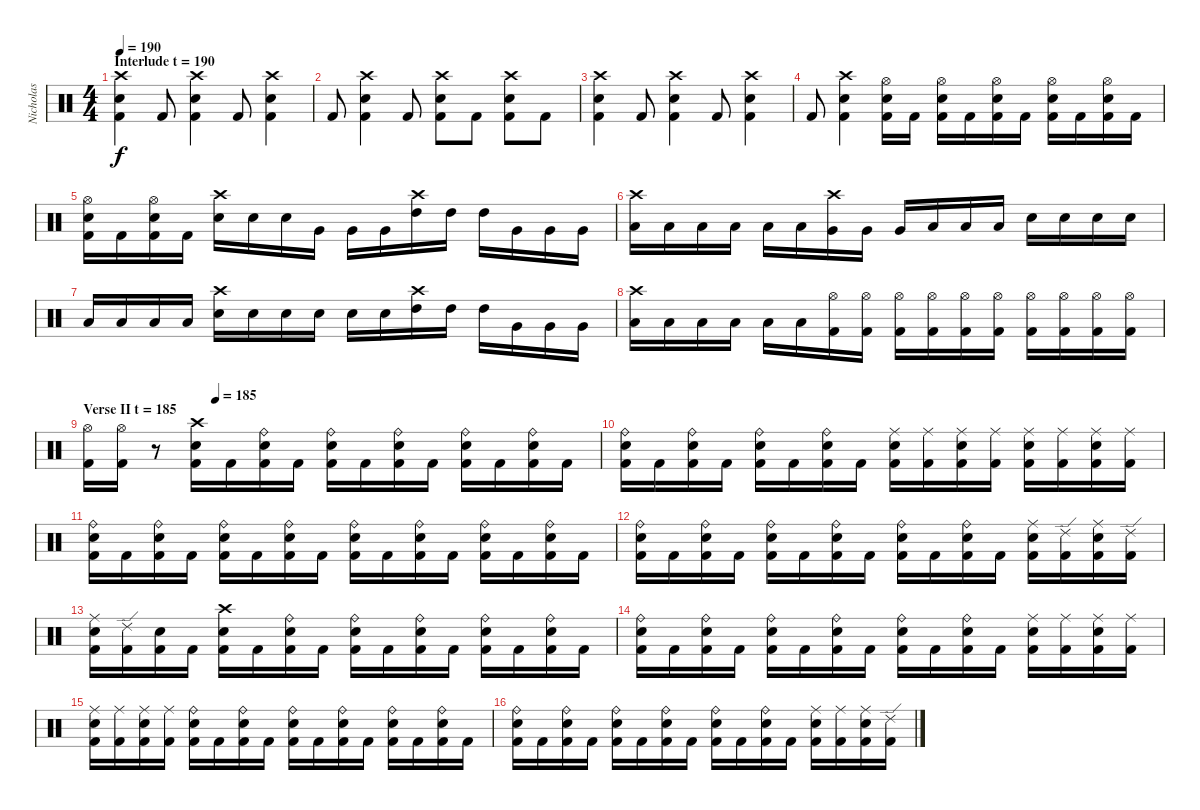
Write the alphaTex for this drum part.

\track ("Nicholas" "Nicholas") {instrument percussion}
\staff {score}
\articulation defaults
\ts (4 4)
\section ("" "Interlude t = 190")
\tempo 190
\clef neutral
\ks c
("Crash high (hit)" "Electric Snare (hit)" "Kick (hit) 2").4{dy f} "Kick (hit) 2".8 ("Crash high (hit)" "Electric Snare (hit)" "Kick (hit) 2").4 "Kick (hit) 2".8 ("Crash high (hit)" "Electric Snare (hit)" "Kick (hit) 2").4 |
"Kick (hit) 2".8 ("Crash high (hit)" "Electric Snare (hit)" "Kick (hit) 2").4 "Kick (hit) 2".8 ("Crash high (hit)" "Electric Snare (hit)" "Kick (hit) 2").8 "Kick (hit) 2".8 ("Crash high (hit)" "Electric Snare (hit)" "Kick (hit) 2").8 "Kick (hit) 2".8 |
("Crash high (hit)" "Electric Snare (hit)" "Kick (hit) 2").4 "Kick (hit) 2".8 ("Crash high (hit)" "Electric Snare (hit)" "Kick (hit) 2").4 "Kick (hit) 2".8 ("Crash high (hit)" "Electric Snare (hit)" "Kick (hit) 2").4 |
"Kick (hit) 2".8 ("Crash high (hit)" "Electric Snare (hit)" "Kick (hit) 2").4 ("Hi-Hat (open)" "Electric Snare (hit)" "Kick (hit) 2").16 "Kick (hit) 2".16 ("Hi-Hat (open)" "Electric Snare (hit)" "Kick (hit) 2").16 "Kick (hit) 2".16 ("Hi-Hat (open)" "Electric Snare (hit)" "Kick (hit) 2").16 "Kick (hit) 2".16 ("Hi-Hat (open)" "Electric Snare (hit)" "Kick (hit) 2").16 "Kick (hit) 2".16 ("Hi-Hat (open)" "Electric Snare (hit)" "Kick (hit) 2").16 "Kick (hit) 2".16 |
("Hi-Hat (open)" "Electric Snare (hit)" "Kick (hit) 2").16 "Kick (hit) 2".16 ("Hi-Hat (open)" "Electric Snare (hit)" "Kick (hit) 2").16 "Kick (hit) 2".16 ("Crash high (hit)" "Electric Snare (hit)").16 "Electric Snare (hit)".16 "Electric Snare (hit)".16 "Very Low Tom (hit)".16 "Very Low Tom (hit)".16 "Very Low Tom (hit)".16 ("Crash high (hit)" "High Tom (hit)").16 "High Tom (hit)".16 "High Tom (hit)".16 "Very Low Tom (hit)".16 "Very Low Tom (hit)".16 "Very Low Tom (hit)".16 |
("Crash high (hit)" "Low Tom (hit)").16 "Low Tom (hit)".16 "Low Tom (hit)".16 "Low Floor Tom (hit)".16 "Low Floor Tom (hit)".16 "Low Floor Tom (hit)".16 ("Crash high (hit)" "Very Low Tom (hit)").16 "Very Low Tom (hit)".16 "Very Low Tom (hit)".16 "Low Floor Tom (hit)".16 "Low Floor Tom (hit)".16 "Low Floor Tom (hit)".16 "Electric Snare (hit)".16 "Electric Snare (hit)".16 "Electric Snare (hit)".16 "Electric Snare (hit)".16 |
"Low Floor Tom (hit)".16 "Low Floor Tom (hit)".16 "Low Floor Tom (hit)".16 "Low Floor Tom (hit)".16 ("Crash high (hit)" "Electric Snare (hit)").16 "Electric Snare (hit)".16 "Electric Snare (hit)".16 "Electric Snare (hit)".16 "Electric Snare (hit)".16 "Electric Snare (hit)".16 ("Crash high (hit)" "High Tom (hit)").16 "High Tom (hit)".16 "High Tom (hit)".16 "Very Low Tom (hit)".16 "Very Low Tom (hit)".16 "Very Low Tom (hit)".16 |
("Crash high (hit)" "Low Tom (hit)").16 "Low Tom (hit)".16 "Low Tom (hit)".16 "Low Floor Tom (hit)".16 "Low Floor Tom (hit)".16 "Low Floor Tom (hit)".16 ("Hi-Hat (open)" "Kick (hit) 2").16 ("Hi-Hat (open)" "Kick (hit) 2").16 ("Hi-Hat (open)" "Kick (hit) 2").16 ("Hi-Hat (open)" "Kick (hit) 2").16 ("Hi-Hat (open)" "Kick (hit) 2").16 ("Hi-Hat (open)" "Kick (hit) 2").16 ("Hi-Hat (open)" "Kick (hit) 2").16 ("Hi-Hat (open)" "Kick (hit) 2").16 ("Hi-Hat (open)" "Kick (hit) 2").16 ("Hi-Hat (open)" "Kick (hit) 2").16 |
\section ("" "Verse II t = 185")
\tempo (185 0.25)
("Hi-Hat (open)" "Kick (hit) 2").16 ("Hi-Hat (open)" "Kick (hit) 2").16 r.8 ("Crash high (hit)" "Electric Snare (hit)" "Kick (hit) 2").16 "Kick (hit) 2".16 ("Ride (bell)" "Electric Snare (hit)" "Kick (hit) 2").16 "Kick (hit) 2".16 ("Ride (bell)" "Electric Snare (hit)" "Kick (hit) 2").16 "Kick (hit) 2".16 ("Ride (bell)" "Electric Snare (hit)" "Kick (hit) 2").16 "Kick (hit) 2".16 ("Ride (bell)" "Electric Snare (hit)" "Kick (hit) 2").16 "Kick (hit) 2".16 ("Ride (bell)" "Electric Snare (hit)" "Kick (hit) 2").16 "Kick (hit) 2".16 |
("Ride (bell)" "Electric Snare (hit)" "Kick (hit) 2").16 "Kick (hit) 2".16 ("Ride (bell)" "Electric Snare (hit)" "Kick (hit) 2").16 "Kick (hit) 2".16 ("Ride (bell)" "Electric Snare (hit)" "Kick (hit) 2").16 "Kick (hit) 2".16 ("Ride (bell)" "Electric Snare (hit)" "Kick (hit) 2").16 "Kick (hit) 2".16 ("Ride (middle)" "Electric Snare (hit)" "Kick (hit) 2").16 ("Ride (middle)" "Kick (hit) 2").16 ("Ride (middle)" "Electric Snare (hit)" "Kick (hit) 2").16 ("Ride (middle)" "Kick (hit) 2").16 ("Ride (middle)" "Electric Snare (hit)" "Kick (hit) 2").16 ("Ride (middle)" "Kick (hit) 2").16 ("Ride (middle)" "Electric Snare (hit)" "Kick (hit) 2").16 ("Ride (middle)" "Kick (hit) 2").16 |
("Ride (bell)" "Electric Snare (hit)" "Kick (hit) 2").16 "Kick (hit) 2".16 ("Ride (bell)" "Electric Snare (hit)" "Kick (hit) 2").16 "Kick (hit) 2".16 ("Ride (bell)" "Electric Snare (hit)" "Kick (hit) 2").16 "Kick (hit) 2".16 ("Ride (bell)" "Electric Snare (hit)" "Kick (hit) 2").16 "Kick (hit) 2".16 ("Ride (bell)" "Electric Snare (hit)" "Kick (hit) 2").16 "Kick (hit) 2".16 ("Ride (bell)" "Electric Snare (hit)" "Kick (hit) 2").16 "Kick (hit) 2".16 ("Ride (bell)" "Electric Snare (hit)" "Kick (hit) 2").16 "Kick (hit) 2".16 ("Ride (bell)" "Electric Snare (hit)" "Kick (hit) 2").16 "Kick (hit) 2".16 |
("Ride (bell)" "Electric Snare (hit)" "Kick (hit) 2").16 "Kick (hit) 2".16 ("Ride (bell)" "Electric Snare (hit)" "Kick (hit) 2").16 "Kick (hit) 2".16 ("Ride (bell)" "Electric Snare (hit)" "Kick (hit) 2").16 "Kick (hit) 2".16 ("Ride (bell)" "Electric Snare (hit)" "Kick (hit) 2").16 "Kick (hit) 2".16 ("Ride (bell)" "Electric Snare (hit)" "Kick (hit) 2").16 "Kick (hit) 2".16 ("Ride (bell)" "Electric Snare (hit)" "Kick (hit) 2").16 "Kick (hit) 2".16 ("Ride (middle)" "Electric Snare (hit)" "Kick (hit) 2").16 ("Ride (edge) 2" "Kick (hit) 2").16 ("Ride (middle)" "Electric Snare (hit)" "Kick (hit) 2").16 ("Ride (edge) 2" "Kick (hit) 2").16 |
("Ride (middle)" "Electric Snare (hit)" "Kick (hit) 2").16 ("Ride (edge) 2" "Kick (hit) 2").16 ("Electric Snare (hit)" "Kick (hit) 2").16 "Kick (hit) 2".16 ("Crash high (hit)" "Electric Snare (hit)" "Kick (hit) 2").16 "Kick (hit) 2".16 ("Ride (bell)" "Electric Snare (hit)" "Kick (hit) 2").16 "Kick (hit) 2".16 ("Ride (bell)" "Electric Snare (hit)" "Kick (hit) 2").16 "Kick (hit) 2".16 ("Ride (bell)" "Electric Snare (hit)" "Kick (hit) 2").16 "Kick (hit) 2".16 ("Ride (bell)" "Electric Snare (hit)" "Kick (hit) 2").16 "Kick (hit) 2".16 ("Ride (bell)" "Electric Snare (hit)" "Kick (hit) 2").16 "Kick (hit) 2".16 |
("Ride (bell)" "Electric Snare (hit)" "Kick (hit) 2").16 "Kick (hit) 2".16 ("Ride (bell)" "Electric Snare (hit)" "Kick (hit) 2").16 "Kick (hit) 2".16 ("Ride (bell)" "Electric Snare (hit)" "Kick (hit) 2").16 "Kick (hit) 2".16 ("Ride (bell)" "Electric Snare (hit)" "Kick (hit) 2").16 "Kick (hit) 2".16 ("Ride (bell)" "Electric Snare (hit)" "Kick (hit) 2").16 "Kick (hit) 2".16 ("Ride (bell)" "Electric Snare (hit)" "Kick (hit) 2").16 "Kick (hit) 2".16 ("Ride (middle)" "Electric Snare (hit)" "Kick (hit) 2").16 ("Ride (middle)" "Kick (hit) 2").16 ("Ride (middle)" "Electric Snare (hit)" "Kick (hit) 2").16 ("Ride (middle)" "Kick (hit) 2").16 |
("Ride (middle)" "Electric Snare (hit)" "Kick (hit) 2").16 ("Ride (middle)" "Kick (hit) 2").16 ("Ride (middle)" "Electric Snare (hit)" "Kick (hit) 2").16 ("Ride (middle)" "Kick (hit) 2").16 ("Ride (bell)" "Electric Snare (hit)" "Kick (hit) 2").16 "Kick (hit) 2".16 ("Ride (bell)" "Electric Snare (hit)" "Kick (hit) 2").16 "Kick (hit) 2".16 ("Ride (bell)" "Electric Snare (hit)" "Kick (hit) 2").16 "Kick (hit) 2".16 ("Ride (bell)" "Electric Snare (hit)" "Kick (hit) 2").16 "Kick (hit) 2".16 ("Ride (bell)" "Electric Snare (hit)" "Kick (hit) 2").16 "Kick (hit) 2".16 ("Ride (bell)" "Electric Snare (hit)" "Kick (hit) 2").16 "Kick (hit) 2".16 |
("Ride (bell)" "Electric Snare (hit)" "Kick (hit) 2").16 "Kick (hit) 2".16 ("Ride (bell)" "Electric Snare (hit)" "Kick (hit) 2").16 "Kick (hit) 2".16 ("Ride (bell)" "Electric Snare (hit)" "Kick (hit) 2").16 "Kick (hit) 2".16 ("Ride (bell)" "Electric Snare (hit)" "Kick (hit) 2").16 "Kick (hit) 2".16 ("Ride (bell)" "Electric Snare (hit)" "Kick (hit) 2").16 "Kick (hit) 2".16 ("Ride (bell)" "Electric Snare (hit)" "Kick (hit) 2").16 "Kick (hit) 2".16 ("Ride (middle)" "Electric Snare (hit)" "Kick (hit) 2").16 ("Ride (middle)" "Kick (hit) 2").16 ("Ride (middle)" "Electric Snare (hit)" "Kick (hit) 2").16 ("Ride (edge) 2" "Kick (hit) 2").16
